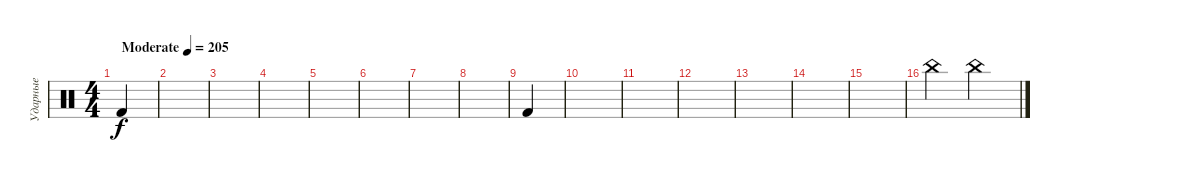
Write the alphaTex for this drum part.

\track ("Ударные" "Ударные") {instrument percussion}
\staff {score}
\articulation defaults
\ts (4 4)
\tempo (205 "Moderate")
\clef neutral
\ks c "Kick (hit) 2".4{dy f}
|
|
|
|
|
|
|
|
"Kick (hit) 2".4 |
|
|
|
|
|
|
"China (hit)".2 "China (hit)".2
